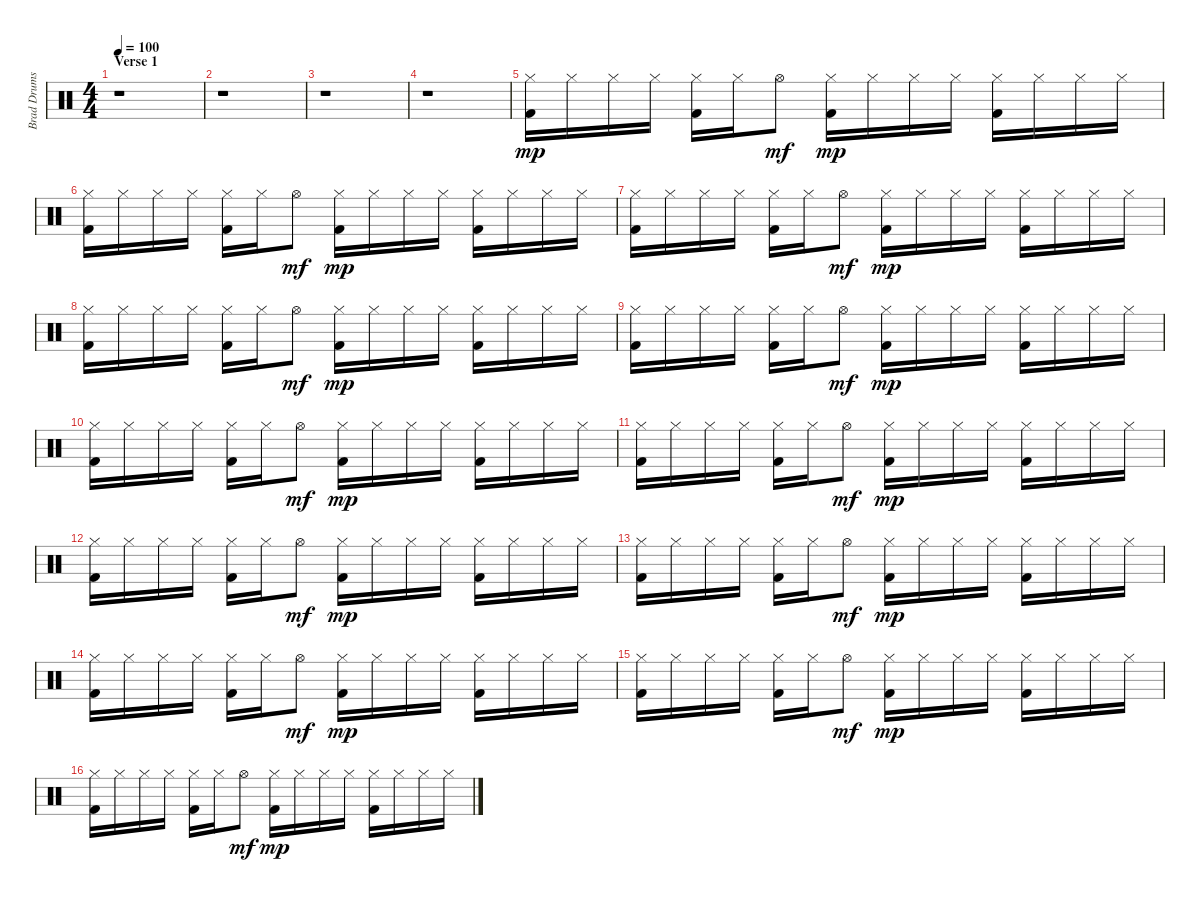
\track ("Brad Drums" "Brad Drums") {instrument percussion}
\staff {score}
\articulation defaults
\ts (4 4)
\section ("" "Verse 1")
\tempo 100
\clef neutral
\ks c
r.1{dy mp} |
r.1 |
r.1 |
r.1 |
("Hi-Hat (closed)" "Kick (hit) 2").16 "Hi-Hat (closed)".16 "Hi-Hat (closed)".16 "Hi-Hat (closed)".16 ("Hi-Hat (closed)" "Kick (hit) 2").16 "Hi-Hat (closed)".16 "Hi-Hat (open)".8{dy mf} ("Hi-Hat (closed)" "Kick (hit) 2").16{dy mp} "Hi-Hat (closed)".16 "Hi-Hat (closed)".16 "Hi-Hat (closed)".16 ("Hi-Hat (closed)" "Kick (hit) 2").16 "Hi-Hat (closed)".16 "Hi-Hat (closed)".16 "Hi-Hat (closed)".16 |
("Hi-Hat (closed)" "Kick (hit) 2").16 "Hi-Hat (closed)".16 "Hi-Hat (closed)".16 "Hi-Hat (closed)".16 ("Hi-Hat (closed)" "Kick (hit) 2").16 "Hi-Hat (closed)".16 "Hi-Hat (open)".8{dy mf} ("Hi-Hat (closed)" "Kick (hit) 2").16{dy mp} "Hi-Hat (closed)".16 "Hi-Hat (closed)".16 "Hi-Hat (closed)".16 ("Hi-Hat (closed)" "Kick (hit) 2").16 "Hi-Hat (closed)".16 "Hi-Hat (closed)".16 "Hi-Hat (closed)".16 |
("Hi-Hat (closed)" "Kick (hit) 2").16 "Hi-Hat (closed)".16 "Hi-Hat (closed)".16 "Hi-Hat (closed)".16 ("Hi-Hat (closed)" "Kick (hit) 2").16 "Hi-Hat (closed)".16 "Hi-Hat (open)".8{dy mf} ("Hi-Hat (closed)" "Kick (hit) 2").16{dy mp} "Hi-Hat (closed)".16 "Hi-Hat (closed)".16 "Hi-Hat (closed)".16 ("Hi-Hat (closed)" "Kick (hit) 2").16 "Hi-Hat (closed)".16 "Hi-Hat (closed)".16 "Hi-Hat (closed)".16 |
("Hi-Hat (closed)" "Kick (hit) 2").16 "Hi-Hat (closed)".16 "Hi-Hat (closed)".16 "Hi-Hat (closed)".16 ("Hi-Hat (closed)" "Kick (hit) 2").16 "Hi-Hat (closed)".16 "Hi-Hat (open)".8{dy mf} ("Hi-Hat (closed)" "Kick (hit) 2").16{dy mp} "Hi-Hat (closed)".16 "Hi-Hat (closed)".16 "Hi-Hat (closed)".16 ("Hi-Hat (closed)" "Kick (hit) 2").16 "Hi-Hat (closed)".16 "Hi-Hat (closed)".16 "Hi-Hat (closed)".16 |
("Hi-Hat (closed)" "Kick (hit) 2").16 "Hi-Hat (closed)".16 "Hi-Hat (closed)".16 "Hi-Hat (closed)".16 ("Hi-Hat (closed)" "Kick (hit) 2").16 "Hi-Hat (closed)".16 "Hi-Hat (open)".8{dy mf} ("Hi-Hat (closed)" "Kick (hit) 2").16{dy mp} "Hi-Hat (closed)".16 "Hi-Hat (closed)".16 "Hi-Hat (closed)".16 ("Hi-Hat (closed)" "Kick (hit) 2").16 "Hi-Hat (closed)".16 "Hi-Hat (closed)".16 "Hi-Hat (closed)".16 |
("Hi-Hat (closed)" "Kick (hit) 2").16 "Hi-Hat (closed)".16 "Hi-Hat (closed)".16 "Hi-Hat (closed)".16 ("Hi-Hat (closed)" "Kick (hit) 2").16 "Hi-Hat (closed)".16 "Hi-Hat (open)".8{dy mf} ("Hi-Hat (closed)" "Kick (hit) 2").16{dy mp} "Hi-Hat (closed)".16 "Hi-Hat (closed)".16 "Hi-Hat (closed)".16 ("Hi-Hat (closed)" "Kick (hit) 2").16 "Hi-Hat (closed)".16 "Hi-Hat (closed)".16 "Hi-Hat (closed)".16 |
("Hi-Hat (closed)" "Kick (hit) 2").16 "Hi-Hat (closed)".16 "Hi-Hat (closed)".16 "Hi-Hat (closed)".16 ("Hi-Hat (closed)" "Kick (hit) 2").16 "Hi-Hat (closed)".16 "Hi-Hat (open)".8{dy mf} ("Hi-Hat (closed)" "Kick (hit) 2").16{dy mp} "Hi-Hat (closed)".16 "Hi-Hat (closed)".16 "Hi-Hat (closed)".16 ("Hi-Hat (closed)" "Kick (hit) 2").16 "Hi-Hat (closed)".16 "Hi-Hat (closed)".16 "Hi-Hat (closed)".16 |
("Hi-Hat (closed)" "Kick (hit) 2").16 "Hi-Hat (closed)".16 "Hi-Hat (closed)".16 "Hi-Hat (closed)".16 ("Hi-Hat (closed)" "Kick (hit) 2").16 "Hi-Hat (closed)".16 "Hi-Hat (open)".8{dy mf} ("Hi-Hat (closed)" "Kick (hit) 2").16{dy mp} "Hi-Hat (closed)".16 "Hi-Hat (closed)".16 "Hi-Hat (closed)".16 ("Hi-Hat (closed)" "Kick (hit) 2").16 "Hi-Hat (closed)".16 "Hi-Hat (closed)".16 "Hi-Hat (closed)".16 |
("Hi-Hat (closed)" "Kick (hit) 2").16 "Hi-Hat (closed)".16 "Hi-Hat (closed)".16 "Hi-Hat (closed)".16 ("Hi-Hat (closed)" "Kick (hit) 2").16 "Hi-Hat (closed)".16 "Hi-Hat (open)".8{dy mf} ("Hi-Hat (closed)" "Kick (hit) 2").16{dy mp} "Hi-Hat (closed)".16 "Hi-Hat (closed)".16 "Hi-Hat (closed)".16 ("Hi-Hat (closed)" "Kick (hit) 2").16 "Hi-Hat (closed)".16 "Hi-Hat (closed)".16 "Hi-Hat (closed)".16 |
("Hi-Hat (closed)" "Kick (hit) 2").16 "Hi-Hat (closed)".16 "Hi-Hat (closed)".16 "Hi-Hat (closed)".16 ("Hi-Hat (closed)" "Kick (hit) 2").16 "Hi-Hat (closed)".16 "Hi-Hat (open)".8{dy mf} ("Hi-Hat (closed)" "Kick (hit) 2").16{dy mp} "Hi-Hat (closed)".16 "Hi-Hat (closed)".16 "Hi-Hat (closed)".16 ("Hi-Hat (closed)" "Kick (hit) 2").16 "Hi-Hat (closed)".16 "Hi-Hat (closed)".16 "Hi-Hat (closed)".16 |
("Hi-Hat (closed)" "Kick (hit) 2").16 "Hi-Hat (closed)".16 "Hi-Hat (closed)".16 "Hi-Hat (closed)".16 ("Hi-Hat (closed)" "Kick (hit) 2").16 "Hi-Hat (closed)".16 "Hi-Hat (open)".8{dy mf} ("Hi-Hat (closed)" "Kick (hit) 2").16{dy mp} "Hi-Hat (closed)".16 "Hi-Hat (closed)".16 "Hi-Hat (closed)".16 ("Hi-Hat (closed)" "Kick (hit) 2").16 "Hi-Hat (closed)".16 "Hi-Hat (closed)".16 "Hi-Hat (closed)".16 |
("Hi-Hat (closed)" "Kick (hit) 2").16 "Hi-Hat (closed)".16 "Hi-Hat (closed)".16 "Hi-Hat (closed)".16 ("Hi-Hat (closed)" "Kick (hit) 2").16 "Hi-Hat (closed)".16 "Hi-Hat (open)".8{dy mf} ("Hi-Hat (closed)" "Kick (hit) 2").16{dy mp} "Hi-Hat (closed)".16 "Hi-Hat (closed)".16 "Hi-Hat (closed)".16 ("Hi-Hat (closed)" "Kick (hit) 2").16 "Hi-Hat (closed)".16 "Hi-Hat (closed)".16 "Hi-Hat (closed)".16
